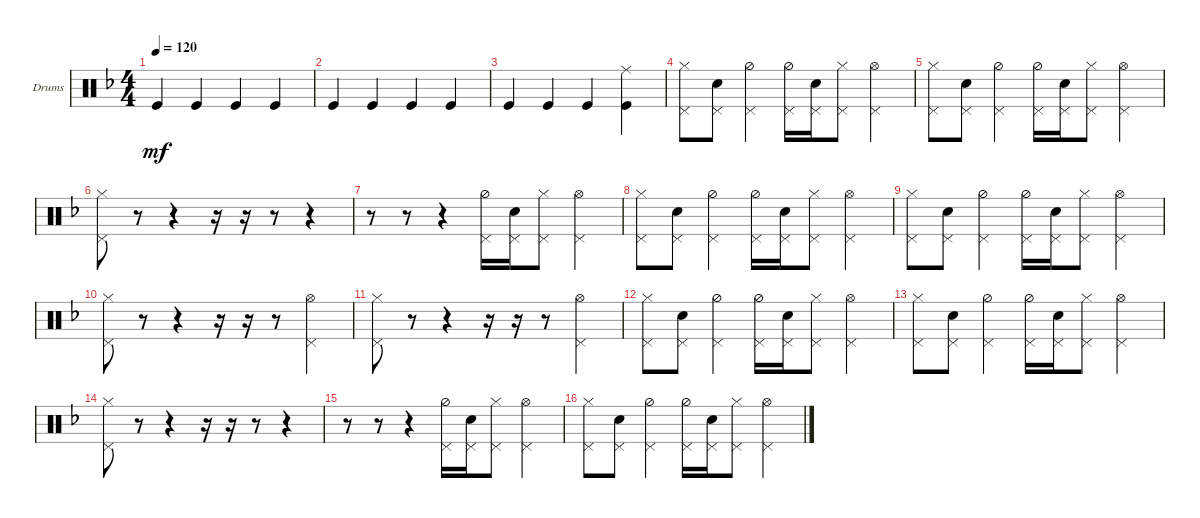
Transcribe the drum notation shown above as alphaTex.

\defaultSystemsLayout 4
\bracketExtendMode groupsimilarinstruments
\firstSystemTrackNameOrientation horizontal
\otherSystemsTrackNameOrientation horizontal
\track ("Drumkit" "Drums") {instrument percussion}
\staff {score}
\articulation defaults
\ts (4 4)
\tempo 120
\clef neutral
\ks f "Kick (hit)".4{dy mf} "Kick (hit)".4 "Kick (hit)".4 "Kick (hit)".4
|
"Kick (hit)".4 "Kick (hit)".4 "Kick (hit)".4 "Kick (hit)".4 |
"Kick (hit)".4 "Kick (hit)".4 "Kick (hit)".4 ("Kick (hit)" "Ride (middle)").4 |
("Pedal Hi-Hat (hit)" "Hi-Hat (closed)").8 ("Pedal Hi-Hat (hit)" "Snare (hit) 2").8 ("Hi-Hat (half)" "Pedal Hi-Hat (hit)").4 ("Hi-Hat (half)" "Pedal Hi-Hat (hit)").16 ("Snare (hit) 2" "Pedal Hi-Hat (hit)").16 ("Hi-Hat (closed)" "Pedal Hi-Hat (hit)").8 ("Hi-Hat (open)" "Pedal Hi-Hat (hit)").4 |
("Pedal Hi-Hat (hit)" "Hi-Hat (closed)").8 ("Pedal Hi-Hat (hit)" "Snare (hit) 2").8 ("Hi-Hat (half)" "Pedal Hi-Hat (hit)").4 ("Hi-Hat (half)" "Pedal Hi-Hat (hit)").16 ("Snare (hit) 2" "Pedal Hi-Hat (hit)").16 ("Hi-Hat (closed)" "Pedal Hi-Hat (hit)").8 ("Hi-Hat (open)" "Pedal Hi-Hat (hit)").4 |
("Pedal Hi-Hat (hit)" "Hi-Hat (closed)").8 r.8 r.4 r.16 r.16 r.8 r.4 |
r.8 r.8 r.4 ("Hi-Hat (half)" "Pedal Hi-Hat (hit)").16 ("Snare (hit) 2" "Pedal Hi-Hat (hit)").16 ("Hi-Hat (closed)" "Pedal Hi-Hat (hit)").8 ("Hi-Hat (open)" "Pedal Hi-Hat (hit)").4 |
("Pedal Hi-Hat (hit)" "Hi-Hat (closed)").8 ("Pedal Hi-Hat (hit)" "Snare (hit) 2").8 ("Hi-Hat (half)" "Pedal Hi-Hat (hit)").4 ("Hi-Hat (half)" "Pedal Hi-Hat (hit)").16 ("Snare (hit) 2" "Pedal Hi-Hat (hit)").16 ("Hi-Hat (closed)" "Pedal Hi-Hat (hit)").8 ("Hi-Hat (open)" "Pedal Hi-Hat (hit)").4 |
("Pedal Hi-Hat (hit)" "Hi-Hat (closed)").8 ("Pedal Hi-Hat (hit)" "Snare (hit) 2").8 ("Hi-Hat (half)" "Pedal Hi-Hat (hit)").4 ("Hi-Hat (half)" "Pedal Hi-Hat (hit)").16 ("Snare (hit) 2" "Pedal Hi-Hat (hit)").16 ("Hi-Hat (closed)" "Pedal Hi-Hat (hit)").8 ("Hi-Hat (open)" "Pedal Hi-Hat (hit)").4 |
("Pedal Hi-Hat (hit)" "Hi-Hat (closed)").8 r.8 r.4 r.16 r.16 r.8 ("Hi-Hat (open)" "Pedal Hi-Hat (hit)").4 |
("Pedal Hi-Hat (hit)" "Hi-Hat (closed)").8 r.8 r.4 r.16 r.16 r.8 ("Hi-Hat (open)" "Pedal Hi-Hat (hit)").4 |
("Pedal Hi-Hat (hit)" "Hi-Hat (closed)").8 ("Pedal Hi-Hat (hit)" "Snare (hit) 2").8 ("Hi-Hat (half)" "Pedal Hi-Hat (hit)").4 ("Hi-Hat (half)" "Pedal Hi-Hat (hit)").16 ("Snare (hit) 2" "Pedal Hi-Hat (hit)").16 ("Hi-Hat (closed)" "Pedal Hi-Hat (hit)").8 ("Hi-Hat (open)" "Pedal Hi-Hat (hit)").4 |
("Pedal Hi-Hat (hit)" "Hi-Hat (closed)").8 ("Pedal Hi-Hat (hit)" "Snare (hit) 2").8 ("Hi-Hat (half)" "Pedal Hi-Hat (hit)").4 ("Hi-Hat (half)" "Pedal Hi-Hat (hit)").16 ("Snare (hit) 2" "Pedal Hi-Hat (hit)").16 ("Hi-Hat (closed)" "Pedal Hi-Hat (hit)").8 ("Hi-Hat (open)" "Pedal Hi-Hat (hit)").4 |
("Pedal Hi-Hat (hit)" "Hi-Hat (closed)").8 r.8 r.4 r.16 r.16 r.8 r.4 |
r.8 r.8 r.4 ("Hi-Hat (half)" "Pedal Hi-Hat (hit)").16 ("Snare (hit) 2" "Pedal Hi-Hat (hit)").16 ("Hi-Hat (closed)" "Pedal Hi-Hat (hit)").8 ("Hi-Hat (open)" "Pedal Hi-Hat (hit)").4 |
("Pedal Hi-Hat (hit)" "Hi-Hat (closed)").8 ("Pedal Hi-Hat (hit)" "Snare (hit) 2").8 ("Hi-Hat (half)" "Pedal Hi-Hat (hit)").4 ("Hi-Hat (half)" "Pedal Hi-Hat (hit)").16 ("Snare (hit) 2" "Pedal Hi-Hat (hit)").16 ("Hi-Hat (closed)" "Pedal Hi-Hat (hit)").8 ("Hi-Hat (open)" "Pedal Hi-Hat (hit)").4
